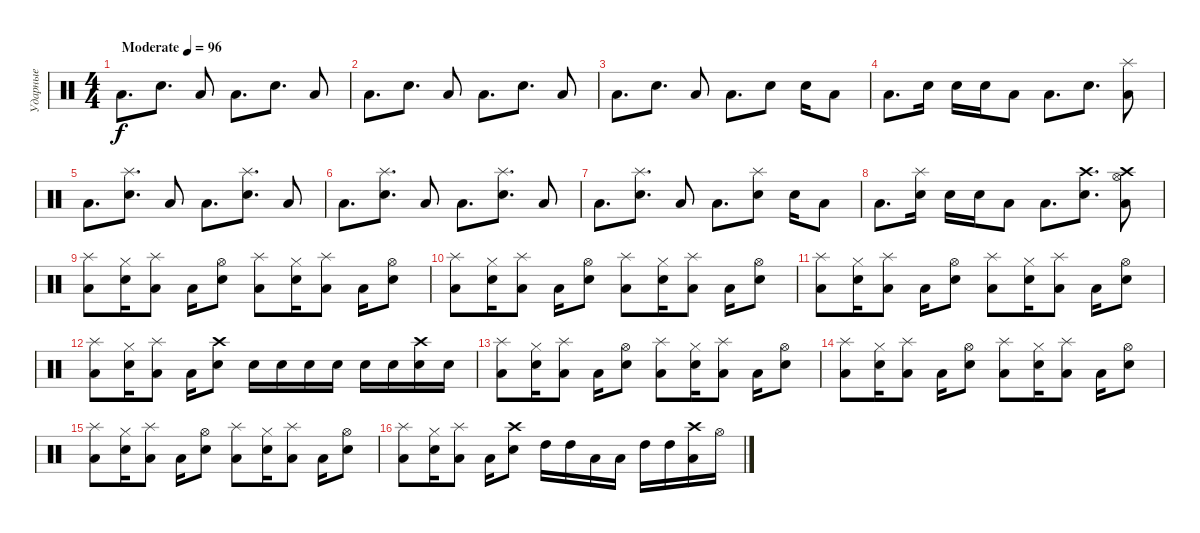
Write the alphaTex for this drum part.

\track ("Ударные" "Ударные") {instrument percussion}
\staff {score}
\articulation defaults
\ts (4 4)
\tempo (96 "Moderate")
\clef neutral
\ks c "Low Floor Tom (hit)".8{d dy f} "Electric Snare (hit)".8{d} "Low Floor Tom (hit)".8 "Low Floor Tom (hit)".8{d} "Electric Snare (hit)".8{d} "Low Floor Tom (hit)".8
|
"Low Floor Tom (hit)".8{d} "Electric Snare (hit)".8{d} "Low Floor Tom (hit)".8 "Low Floor Tom (hit)".8{d} "Electric Snare (hit)".8{d} "Low Floor Tom (hit)".8 |
"Low Floor Tom (hit)".8{d} "Electric Snare (hit)".8{d} "Low Floor Tom (hit)".8 "Low Floor Tom (hit)".8{d} "Electric Snare (hit)".8 "Electric Snare (hit)".16 "Low Floor Tom (hit)".8 |
"Low Floor Tom (hit)".8{d} "Electric Snare (hit)".16 "Electric Snare (hit)".16 "Electric Snare (hit)".16 "Low Floor Tom (hit)".8 "Low Floor Tom (hit)".8{d} "Electric Snare (hit)".8{d} ("Low Floor Tom (hit)" "Splash (hit)").8 |
"Low Floor Tom (hit)".8{d} ("Electric Snare (hit)" "Splash (hit)").8{d} "Low Floor Tom (hit)".8 "Low Floor Tom (hit)".8{d} ("Electric Snare (hit)" "Splash (hit)").8{d} "Low Floor Tom (hit)".8 |
"Low Floor Tom (hit)".8{d} ("Electric Snare (hit)" "Splash (hit)").8{d} "Low Floor Tom (hit)".8 "Low Floor Tom (hit)".8{d} ("Electric Snare (hit)" "Splash (hit)").8{d} "Low Floor Tom (hit)".8 |
"Low Floor Tom (hit)".8{d} ("Electric Snare (hit)" "Splash (hit)").8{d} "Low Floor Tom (hit)".8 "Low Floor Tom (hit)".8{d} ("Electric Snare (hit)" "Splash (hit)").8 "Electric Snare (hit)".16 "Low Floor Tom (hit)".8 |
"Low Floor Tom (hit)".8{d} ("Electric Snare (hit)" "Splash (hit)").16 "Electric Snare (hit)".16 "Electric Snare (hit)".16 "Low Floor Tom (hit)".8 "Low Floor Tom (hit)".8{d} ("Electric Snare (hit)" "Crash high (hit)").8{d} ("Low Floor Tom (hit)" "Crash high (hit)" "Hi-Hat (open)").8 |
("Low Floor Tom (hit)" "Splash (hit)").8 ("Electric Snare (hit)" "Hi-Hat (closed)").16 ("Low Floor Tom (hit)" "Splash (hit)").8 "Low Floor Tom (hit)".16 ("Electric Snare (hit)" "Hi-Hat (open)").8 ("Low Floor Tom (hit)" "Splash (hit)").8 ("Electric Snare (hit)" "Hi-Hat (closed)").16 ("Low Floor Tom (hit)" "Splash (hit)").8 "Low Floor Tom (hit)".16 ("Electric Snare (hit)" "Hi-Hat (open)").8 |
("Low Floor Tom (hit)" "Splash (hit)").8 ("Electric Snare (hit)" "Hi-Hat (closed)").16 ("Low Floor Tom (hit)" "Splash (hit)").8 "Low Floor Tom (hit)".16 ("Electric Snare (hit)" "Hi-Hat (open)").8 ("Low Floor Tom (hit)" "Splash (hit)").8 ("Electric Snare (hit)" "Hi-Hat (closed)").16 ("Low Floor Tom (hit)" "Splash (hit)").8 "Low Floor Tom (hit)".16 ("Electric Snare (hit)" "Hi-Hat (open)").8 |
("Low Floor Tom (hit)" "Splash (hit)").8 ("Electric Snare (hit)" "Hi-Hat (closed)").16 ("Low Floor Tom (hit)" "Splash (hit)").8 "Low Floor Tom (hit)".16 ("Electric Snare (hit)" "Hi-Hat (open)").8 ("Low Floor Tom (hit)" "Splash (hit)").8 ("Electric Snare (hit)" "Hi-Hat (closed)").16 ("Low Floor Tom (hit)" "Splash (hit)").8 "Low Floor Tom (hit)".16 ("Electric Snare (hit)" "Hi-Hat (open)").8 |
("Low Floor Tom (hit)" "Splash (hit)").8 ("Electric Snare (hit)" "Hi-Hat (closed)").16 ("Low Floor Tom (hit)" "Splash (hit)").8 "Low Floor Tom (hit)".16 ("Electric Snare (hit)" "Crash high (hit)").8 "Electric Snare (hit)".16 "Electric Snare (hit)".16 "Electric Snare (hit)".16 "Electric Snare (hit)".16 "Electric Snare (hit)".16 "Electric Snare (hit)".16 ("Electric Snare (hit)" "Crash high (hit)").16 "Electric Snare (hit)".16 |
("Low Floor Tom (hit)" "Splash (hit)").8 ("Electric Snare (hit)" "Hi-Hat (closed)").16 ("Low Floor Tom (hit)" "Splash (hit)").8 "Low Floor Tom (hit)".16 ("Electric Snare (hit)" "Hi-Hat (open)").8 ("Low Floor Tom (hit)" "Splash (hit)").8 ("Electric Snare (hit)" "Hi-Hat (closed)").16 ("Low Floor Tom (hit)" "Splash (hit)").8 "Low Floor Tom (hit)".16 ("Electric Snare (hit)" "Hi-Hat (open)").8 |
("Low Floor Tom (hit)" "Splash (hit)").8 ("Electric Snare (hit)" "Hi-Hat (closed)").16 ("Low Floor Tom (hit)" "Splash (hit)").8 "Low Floor Tom (hit)".16 ("Electric Snare (hit)" "Hi-Hat (open)").8 ("Low Floor Tom (hit)" "Splash (hit)").8 ("Electric Snare (hit)" "Hi-Hat (closed)").16 ("Low Floor Tom (hit)" "Splash (hit)").8 "Low Floor Tom (hit)".16 ("Electric Snare (hit)" "Hi-Hat (open)").8 |
("Low Floor Tom (hit)" "Splash (hit)").8 ("Electric Snare (hit)" "Hi-Hat (closed)").16 ("Low Floor Tom (hit)" "Splash (hit)").8 "Low Floor Tom (hit)".16 ("Electric Snare (hit)" "Hi-Hat (open)").8 ("Low Floor Tom (hit)" "Splash (hit)").8 ("Electric Snare (hit)" "Hi-Hat (closed)").16 ("Low Floor Tom (hit)" "Splash (hit)").8 "Low Floor Tom (hit)".16 ("Electric Snare (hit)" "Hi-Hat (open)").8 |
("Low Floor Tom (hit)" "Splash (hit)").8 ("Electric Snare (hit)" "Hi-Hat (closed)").16 ("Low Floor Tom (hit)" "Splash (hit)").8 "Low Floor Tom (hit)".16 ("Electric Snare (hit)" "Crash high (hit)").8 "High Tom (hit)".16 "High Tom (hit)".16 "Low Tom (hit)".16 "Low Tom (hit)".16 "High Tom (hit)".16 "High Tom (hit)".16 ("Low Tom (hit)" "Crash high (hit)").16 "Hi-Hat (open)".16
